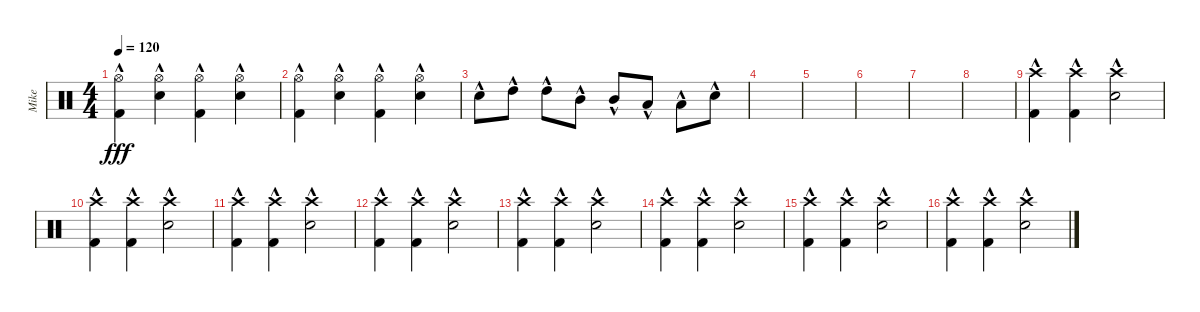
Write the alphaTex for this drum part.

\track ("Mike" "Mike") {instrument percussion}
\staff {score}
\articulation defaults
\ts (4 4)
\tempo 120
\clef neutral
\ks c
("Hi-Hat (open)"{hac} "Kick (hit) 2"{hac}).4{dy fff} ("Hi-Hat (open)"{hac} "Electric Snare (hit)"{hac}).4 ("Hi-Hat (open)"{hac} "Kick (hit) 2"{hac}).4 ("Hi-Hat (open)"{hac} "Electric Snare (hit)"{hac}).4 |
("Hi-Hat (open)"{hac} "Kick (hit) 2"{hac}).4 ("Hi-Hat (open)"{hac} "Electric Snare (hit)"{hac}).4 ("Hi-Hat (open)"{hac} "Kick (hit) 2"{hac}).4 ("Hi-Hat (open)"{hac} "Electric Snare (hit)"{hac}).4 |
"Electric Snare (hit)"{hac}.8 "High Tom (hit)"{hac}.8 "High Tom (hit)"{hac}.8 "Mid Tom (hit)"{hac}.8 "Mid Tom (hit)"{hac}.8 "Low Tom (hit)"{hac}.8 "Low Tom (hit)"{hac}.8 "Electric Snare (hit)"{hac}.8 |
|
|
|
|
|
("Crash high (hit)"{hac} "Kick (hit) 2"{hac}).4 ("Crash high (hit)"{hac} "Kick (hit) 2"{hac}).4 ("Crash high (hit)"{hac} "Electric Snare (hit)"{hac}).2 |
("Crash high (hit)"{hac} "Kick (hit) 2"{hac}).4 ("Crash high (hit)"{hac} "Kick (hit) 2"{hac}).4 ("Crash high (hit)"{hac} "Electric Snare (hit)"{hac}).2 |
("Crash high (hit)"{hac} "Kick (hit) 2"{hac}).4 ("Crash high (hit)"{hac} "Kick (hit) 2"{hac}).4 ("Crash high (hit)"{hac} "Electric Snare (hit)"{hac}).2 |
("Crash high (hit)"{hac} "Kick (hit) 2"{hac}).4 ("Crash high (hit)"{hac} "Kick (hit) 2"{hac}).4 ("Crash high (hit)"{hac} "Electric Snare (hit)"{hac}).2 |
("Crash high (hit)"{hac} "Kick (hit) 2"{hac}).4 ("Crash high (hit)"{hac} "Kick (hit) 2"{hac}).4 ("Crash high (hit)"{hac} "Electric Snare (hit)"{hac}).2 |
("Crash high (hit)"{hac} "Kick (hit) 2"{hac}).4 ("Crash high (hit)"{hac} "Kick (hit) 2"{hac}).4 ("Crash high (hit)"{hac} "Electric Snare (hit)"{hac}).2 |
("Crash high (hit)"{hac} "Kick (hit) 2"{hac}).4 ("Crash high (hit)"{hac} "Kick (hit) 2"{hac}).4 ("Crash high (hit)"{hac} "Electric Snare (hit)"{hac}).2 |
("Crash high (hit)"{hac} "Kick (hit) 2"{hac}).4 ("Crash high (hit)"{hac} "Kick (hit) 2"{hac}).4 ("Crash high (hit)"{hac} "Electric Snare (hit)"{hac}).2
